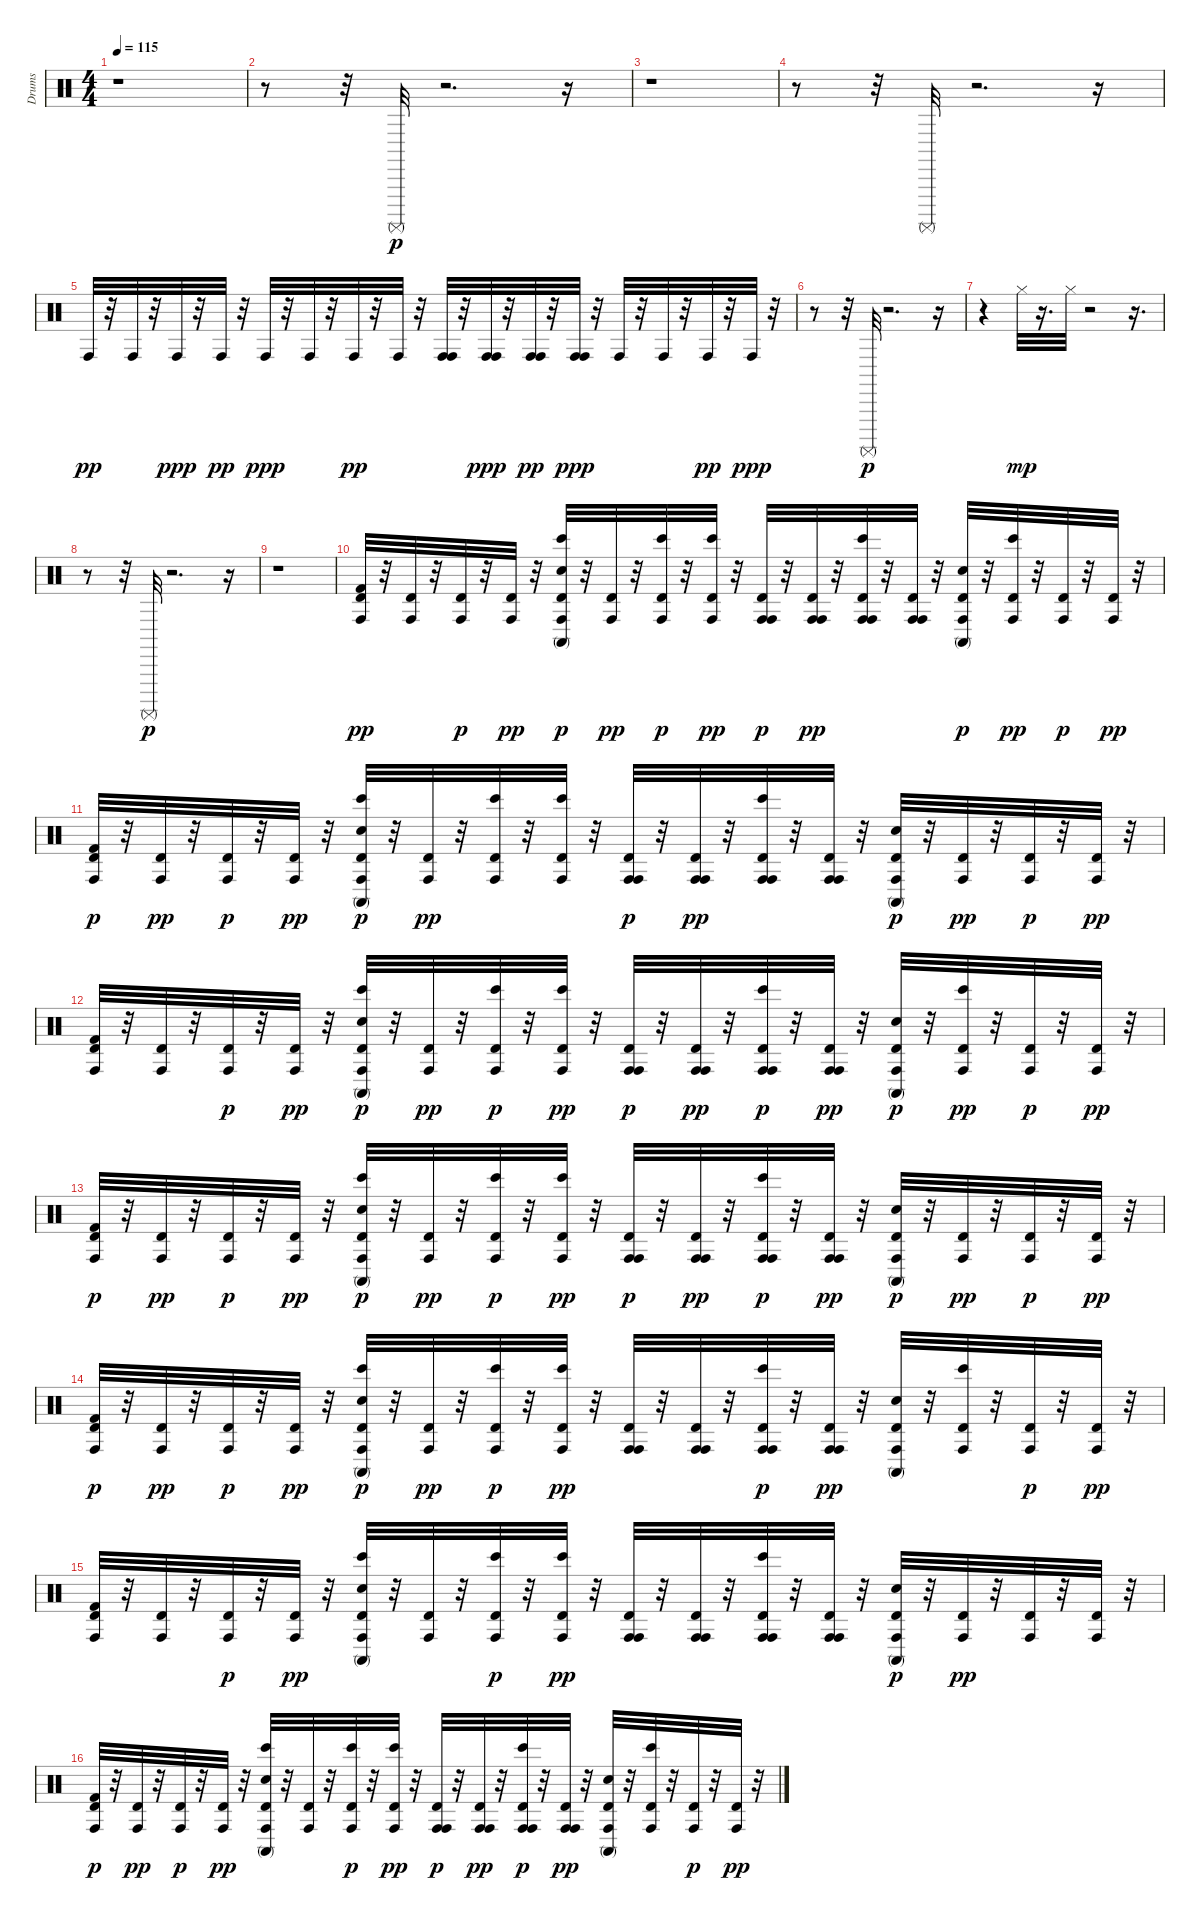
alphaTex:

\track ("Drums" "Drums") {instrument percussion}
\staff {score}
\articulation defaults
\ts (4 4)
\tempo 115
\clef neutral
\ks c
r.1{dy p} |
r.8 r.32 "Surdo (mute)".32 r.2{d} r.16 |
r.1 |
r.8 r.32 "Surdo (mute)".32 r.2{d} r.16 |
"Conga high (hit)".32{dy pp} r.32 "Conga high (hit)".32 r.32 "Conga high (hit)".32{dy ppp} r.32 "Conga high (hit)".32{dy pp} r.32 "Conga high (hit)".32{dy ppp} r.32 "Conga high (hit)".32 r.32 "Conga high (hit)".32{dy pp} r.32 "Conga high (hit)".32 r.32 ("Conga high (hit)" "Conga high (hit)").32 r.32 ("Conga high (hit)" "Conga high (hit)").32{dy ppp} r.32 ("Conga high (hit)" "Conga high (hit)").32{dy pp} r.32 ("Conga high (hit)" "Conga high (hit)").32{dy ppp} r.32 "Conga high (hit)".32 r.32 "Conga high (hit)".32 r.32 "Conga high (hit)".32{dy pp} r.32 "Conga high (hit)".32{dy ppp} r.32 |
r.8 r.32 "Surdo (mute)".32{dy p} r.2{d} r.16 |
r.4 "Hi-Hat (closed)".32{dy mp} r.16{d} "Hi-Hat (closed)".32 r.2 r.16{d} |
r.8 r.32 "Surdo (mute)".32{dy p} r.2{d} r.16 |
r.1 |
("Conga high (hit)" "Kick (hit) 2" "Timbale high (hit)").32{dy pp} r.32 ("Conga high (hit)" "Timbale high (hit)").32 r.32 ("Conga high (hit)" "Timbale high (hit)").32{dy p} r.32 ("Conga high (hit)" "Timbale high (hit)").32{dy pp} r.32 ("Conga high (hit)" "Hand Clap (hit)" "Conga high (mute)" "Bongo High (hit)" "Timbale high (hit)").32{dy p} r.32 ("Conga high (hit)" "Timbale high (hit)").32{dy pp} r.32 ("Conga high (hit)" "Bongo High (hit)" "Timbale high (hit)").32{dy p} r.32 ("Conga high (hit)" "Bongo High (hit)" "Timbale high (hit)").32{dy pp} r.32 ("Conga high (hit)" "Conga high (hit)" "Timbale high (hit)").32{dy p} r.32 ("Conga high (hit)" "Conga high (hit)" "Timbale high (hit)").32{dy pp} r.32 ("Conga high (hit)" "Conga high (hit)" "Bongo High (hit)" "Timbale high (hit)").32 r.32 ("Conga high (hit)" "Conga high (hit)" "Timbale high (hit)").32 r.32 ("Conga high (hit)" "Hand Clap (hit)" "Conga high (mute)" "Timbale high (hit)").32{dy p} r.32 ("Conga high (hit)" "Bongo High (hit)" "Timbale high (hit)").32{dy pp} r.32 ("Conga high (hit)" "Timbale high (hit)").32{dy p} r.32 ("Conga high (hit)" "Timbale high (hit)").32{dy pp} r.32 |
("Conga high (hit)" "Kick (hit) 2" "Timbale high (hit)").32{dy p} r.32 ("Conga high (hit)" "Timbale high (hit)").32{dy pp} r.32 ("Conga high (hit)" "Timbale high (hit)").32{dy p} r.32 ("Conga high (hit)" "Timbale high (hit)").32{dy pp} r.32 ("Conga high (hit)" "Hand Clap (hit)" "Conga high (mute)" "Bongo High (hit)" "Timbale high (hit)").32{dy p} r.32 ("Conga high (hit)" "Timbale high (hit)").32{dy pp} r.32 ("Conga high (hit)" "Bongo High (hit)" "Timbale high (hit)").32 r.32 ("Conga high (hit)" "Bongo High (hit)" "Timbale high (hit)").32 r.32 ("Conga high (hit)" "Conga high (hit)" "Timbale high (hit)").32{dy p} r.32 ("Conga high (hit)" "Conga high (hit)" "Timbale high (hit)").32{dy pp} r.32 ("Conga high (hit)" "Conga high (hit)" "Bongo High (hit)" "Timbale high (hit)").32 r.32 ("Conga high (hit)" "Conga high (hit)" "Timbale high (hit)").32 r.32 ("Conga high (hit)" "Hand Clap (hit)" "Conga high (mute)" "Timbale high (hit)").32{dy p} r.32 ("Conga high (hit)" "Timbale high (hit)").32{dy pp} r.32 ("Conga high (hit)" "Timbale high (hit)").32{dy p} r.32 ("Conga high (hit)" "Timbale high (hit)").32{dy pp} r.32 |
("Conga high (hit)" "Kick (hit) 2" "Timbale high (hit)").32 r.32 ("Conga high (hit)" "Timbale high (hit)").32 r.32 ("Conga high (hit)" "Timbale high (hit)").32{dy p} r.32 ("Conga high (hit)" "Timbale high (hit)").32{dy pp} r.32 ("Conga high (hit)" "Hand Clap (hit)" "Conga high (mute)" "Bongo High (hit)" "Timbale high (hit)").32{dy p} r.32 ("Conga high (hit)" "Timbale high (hit)").32{dy pp} r.32 ("Conga high (hit)" "Bongo High (hit)" "Timbale high (hit)").32{dy p} r.32 ("Conga high (hit)" "Bongo High (hit)" "Timbale high (hit)").32{dy pp} r.32 ("Conga high (hit)" "Conga high (hit)" "Timbale high (hit)").32{dy p} r.32 ("Conga high (hit)" "Conga high (hit)" "Timbale high (hit)").32{dy pp} r.32 ("Conga high (hit)" "Conga high (hit)" "Bongo High (hit)" "Timbale high (hit)").32{dy p} r.32 ("Conga high (hit)" "Conga high (hit)" "Timbale high (hit)").32{dy pp} r.32 ("Conga high (hit)" "Hand Clap (hit)" "Conga high (mute)" "Timbale high (hit)").32{dy p} r.32 ("Conga high (hit)" "Bongo High (hit)" "Timbale high (hit)").32{dy pp} r.32 ("Conga high (hit)" "Timbale high (hit)").32{dy p} r.32 ("Conga high (hit)" "Timbale high (hit)").32{dy pp} r.32 |
("Conga high (hit)" "Kick (hit) 2" "Timbale high (hit)").32{dy p} r.32 ("Conga high (hit)" "Timbale high (hit)").32{dy pp} r.32 ("Conga high (hit)" "Timbale high (hit)").32{dy p} r.32 ("Conga high (hit)" "Timbale high (hit)").32{dy pp} r.32 ("Conga high (hit)" "Hand Clap (hit)" "Conga high (mute)" "Bongo High (hit)" "Timbale high (hit)").32{dy p} r.32 ("Conga high (hit)" "Timbale high (hit)").32{dy pp} r.32 ("Conga high (hit)" "Bongo High (hit)" "Timbale high (hit)").32{dy p} r.32 ("Conga high (hit)" "Bongo High (hit)" "Timbale high (hit)").32{dy pp} r.32 ("Conga high (hit)" "Conga high (hit)" "Timbale high (hit)").32{dy p} r.32 ("Conga high (hit)" "Conga high (hit)" "Timbale high (hit)").32{dy pp} r.32 ("Conga high (hit)" "Conga high (hit)" "Bongo High (hit)" "Timbale high (hit)").32{dy p} r.32 ("Conga high (hit)" "Conga high (hit)" "Timbale high (hit)").32{dy pp} r.32 ("Conga high (hit)" "Hand Clap (hit)" "Conga high (mute)" "Timbale high (hit)").32{dy p} r.32 ("Conga high (hit)" "Timbale high (hit)").32{dy pp} r.32 ("Conga high (hit)" "Timbale high (hit)").32{dy p} r.32 ("Conga high (hit)" "Timbale high (hit)").32{dy pp} r.32 |
("Conga high (hit)" "Kick (hit) 2" "Timbale high (hit)").32{dy p} r.32 ("Conga high (hit)" "Timbale high (hit)").32{dy pp} r.32 ("Conga high (hit)" "Timbale high (hit)").32{dy p} r.32 ("Conga high (hit)" "Timbale high (hit)").32{dy pp} r.32 ("Conga high (hit)" "Hand Clap (hit)" "Conga high (mute)" "Bongo High (hit)" "Timbale high (hit)").32{dy p} r.32 ("Conga high (hit)" "Timbale high (hit)").32{dy pp} r.32 ("Conga high (hit)" "Bongo High (hit)" "Timbale high (hit)").32{dy p} r.32 ("Conga high (hit)" "Bongo High (hit)" "Timbale high (hit)").32{dy pp} r.32 ("Conga high (hit)" "Conga high (hit)" "Timbale high (hit)").32 r.32 ("Conga high (hit)" "Conga high (hit)" "Timbale high (hit)").32 r.32 ("Conga high (hit)" "Conga high (hit)" "Bongo High (hit)" "Timbale high (hit)").32{dy p} r.32 ("Conga high (hit)" "Conga high (hit)" "Timbale high (hit)").32{dy pp} r.32 ("Conga high (hit)" "Hand Clap (hit)" "Conga high (mute)" "Timbale high (hit)").32 r.32 ("Conga high (hit)" "Bongo High (hit)" "Timbale high (hit)").32 r.32 ("Conga high (hit)" "Timbale high (hit)").32{dy p} r.32 ("Conga high (hit)" "Timbale high (hit)").32{dy pp} r.32 |
("Conga high (hit)" "Kick (hit) 2" "Timbale high (hit)").32 r.32 ("Conga high (hit)" "Timbale high (hit)").32 r.32 ("Conga high (hit)" "Timbale high (hit)").32{dy p} r.32 ("Conga high (hit)" "Timbale high (hit)").32{dy pp} r.32 ("Conga high (hit)" "Hand Clap (hit)" "Conga high (mute)" "Bongo High (hit)" "Timbale high (hit)").32 r.32 ("Conga high (hit)" "Timbale high (hit)").32 r.32 ("Conga high (hit)" "Bongo High (hit)" "Timbale high (hit)").32{dy p} r.32 ("Conga high (hit)" "Bongo High (hit)" "Timbale high (hit)").32{dy pp} r.32 ("Conga high (hit)" "Conga high (hit)" "Timbale high (hit)").32 r.32 ("Conga high (hit)" "Conga high (hit)" "Timbale high (hit)").32 r.32 ("Conga high (hit)" "Conga high (hit)" "Bongo High (hit)" "Timbale high (hit)").32 r.32 ("Conga high (hit)" "Conga high (hit)" "Timbale high (hit)").32 r.32 ("Conga high (hit)" "Hand Clap (hit)" "Conga high (mute)" "Timbale high (hit)").32{dy p} r.32 ("Conga high (hit)" "Timbale high (hit)").32{dy pp} r.32 ("Conga high (hit)" "Timbale high (hit)").32 r.32 ("Conga high (hit)" "Timbale high (hit)").32 r.32 |
("Conga high (hit)" "Kick (hit) 2" "Timbale high (hit)").32{dy p} r.32 ("Conga high (hit)" "Timbale high (hit)").32{dy pp} r.32 ("Conga high (hit)" "Timbale high (hit)").32{dy p} r.32 ("Conga high (hit)" "Timbale high (hit)").32{dy pp} r.32 ("Conga high (hit)" "Hand Clap (hit)" "Conga high (mute)" "Bongo High (hit)" "Timbale high (hit)").32 r.32 ("Conga high (hit)" "Timbale high (hit)").32 r.32 ("Conga high (hit)" "Bongo High (hit)" "Timbale high (hit)").32{dy p} r.32 ("Conga high (hit)" "Bongo High (hit)" "Timbale high (hit)").32{dy pp} r.32 ("Conga high (hit)" "Conga high (hit)" "Timbale high (hit)").32{dy p} r.32 ("Conga high (hit)" "Conga high (hit)" "Timbale high (hit)").32{dy pp} r.32 ("Conga high (hit)" "Conga high (hit)" "Bongo High (hit)" "Timbale high (hit)").32{dy p} r.32 ("Conga high (hit)" "Conga high (hit)" "Timbale high (hit)").32{dy pp} r.32 ("Conga high (hit)" "Hand Clap (hit)" "Conga high (mute)" "Timbale high (hit)").32 r.32 ("Conga high (hit)" "Bongo High (hit)" "Timbale high (hit)").32 r.32 ("Conga high (hit)" "Timbale high (hit)").32{dy p} r.32 ("Conga high (hit)" "Timbale high (hit)").32{dy pp} r.32
